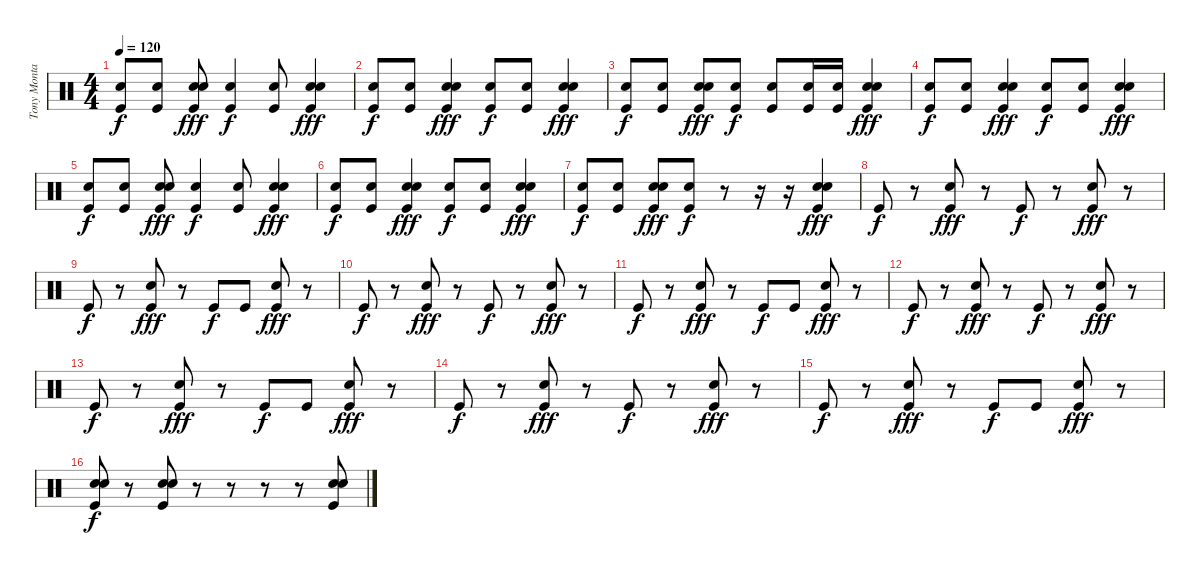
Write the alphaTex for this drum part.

\track ("Tony Montana" "Tony Monta") {instrument percussion}
\staff {score}
\articulation defaults
\ts (4 4)
\tempo 120
\clef neutral
\ks c
("Kick (hit)" "Snare (hit) 2").8{dy f} ("Kick (hit)" "Snare (hit) 2").8 ("Kick (hit)" "Snare (hit) 2" "Snare (hit) 2").8{dy fff} ("Kick (hit)" "Snare (hit) 2").4{dy f} ("Kick (hit)" "Snare (hit) 2").8 ("Kick (hit)" "Snare (hit) 2" "Snare (hit) 2").4{dy fff} |
("Kick (hit)" "Snare (hit) 2").8{dy f} ("Kick (hit)" "Snare (hit) 2").8 ("Kick (hit)" "Snare (hit) 2" "Snare (hit) 2").4{dy fff} ("Kick (hit)" "Snare (hit) 2").8{dy f} ("Kick (hit)" "Snare (hit) 2").8 ("Kick (hit)" "Snare (hit) 2" "Snare (hit) 2").4{dy fff} |
("Kick (hit)" "Snare (hit) 2").8{dy f} ("Kick (hit)" "Snare (hit) 2").8 ("Kick (hit)" "Snare (hit) 2" "Snare (hit) 2").8{dy fff} ("Kick (hit)" "Snare (hit) 2").8{dy f} ("Kick (hit)" "Snare (hit) 2").8 ("Kick (hit)" "Snare (hit) 2").16 ("Kick (hit)" "Snare (hit) 2").16 ("Kick (hit)" "Snare (hit) 2" "Snare (hit) 2").4{dy fff} |
("Kick (hit)" "Snare (hit) 2").8{dy f} ("Kick (hit)" "Snare (hit) 2").8 ("Kick (hit)" "Snare (hit) 2" "Snare (hit) 2").4{dy fff} ("Kick (hit)" "Snare (hit) 2").8{dy f} ("Kick (hit)" "Snare (hit) 2").8 ("Kick (hit)" "Snare (hit) 2" "Snare (hit) 2").4{dy fff} |
("Kick (hit)" "Snare (hit) 2").8{dy f} ("Kick (hit)" "Snare (hit) 2").8 ("Kick (hit)" "Snare (hit) 2" "Snare (hit) 2").8{dy fff} ("Kick (hit)" "Snare (hit) 2").4{dy f} ("Kick (hit)" "Snare (hit) 2").8 ("Kick (hit)" "Snare (hit) 2" "Snare (hit) 2").4{dy fff} |
("Kick (hit)" "Snare (hit) 2").8{dy f} ("Kick (hit)" "Snare (hit) 2").8 ("Kick (hit)" "Snare (hit) 2" "Snare (hit) 2").4{dy fff} ("Kick (hit)" "Snare (hit) 2").8{dy f} ("Kick (hit)" "Snare (hit) 2").8 ("Kick (hit)" "Snare (hit) 2" "Snare (hit) 2").4{dy fff} |
("Kick (hit)" "Snare (hit) 2").8{dy f} ("Kick (hit)" "Snare (hit) 2").8 ("Kick (hit)" "Snare (hit) 2" "Snare (hit) 2").8{dy fff} ("Kick (hit)" "Snare (hit) 2").8{dy f} r.8 r.16 r.16 ("Kick (hit)" "Snare (hit) 2" "Snare (hit) 2").4{dy fff} |
"Kick (hit)".8{dy f} r.8 ("Kick (hit)" "Snare (hit) 2").8{dy fff} r.8 "Kick (hit)".8{dy f} r.8 ("Kick (hit)" "Snare (hit) 2").8{dy fff} r.8 |
"Kick (hit)".8{dy f} r.8 ("Kick (hit)" "Snare (hit) 2").8{dy fff} r.8 "Kick (hit)".8{dy f} "Kick (hit)".8 ("Kick (hit)" "Snare (hit) 2").8{dy fff} r.8 |
"Kick (hit)".8{dy f} r.8 ("Kick (hit)" "Snare (hit) 2").8{dy fff} r.8 "Kick (hit)".8{dy f} r.8 ("Kick (hit)" "Snare (hit) 2").8{dy fff} r.8 |
"Kick (hit)".8{dy f} r.8 ("Kick (hit)" "Snare (hit) 2").8{dy fff} r.8 "Kick (hit)".8{dy f} "Kick (hit)".8 ("Kick (hit)" "Snare (hit) 2").8{dy fff} r.8 |
"Kick (hit)".8{dy f} r.8 ("Kick (hit)" "Snare (hit) 2").8{dy fff} r.8 "Kick (hit)".8{dy f} r.8 ("Kick (hit)" "Snare (hit) 2").8{dy fff} r.8 |
"Kick (hit)".8{dy f} r.8 ("Kick (hit)" "Snare (hit) 2").8{dy fff} r.8 "Kick (hit)".8{dy f} "Kick (hit)".8 ("Kick (hit)" "Snare (hit) 2").8{dy fff} r.8 |
"Kick (hit)".8{dy f} r.8 ("Kick (hit)" "Snare (hit) 2").8{dy fff} r.8 "Kick (hit)".8{dy f} r.8 ("Kick (hit)" "Snare (hit) 2").8{dy fff} r.8 |
"Kick (hit)".8{dy f} r.8 ("Kick (hit)" "Snare (hit) 2").8{dy fff} r.8 "Kick (hit)".8{dy f} "Kick (hit)".8 ("Kick (hit)" "Snare (hit) 2").8{dy fff} r.8 |
("Kick (hit)" "Snare (hit) 2" "Snare (hit) 2").8{dy f} r.8 ("Kick (hit)" "Snare (hit) 2" "Snare (hit) 2").8 r.8 r.8 r.8 r.8 ("Kick (hit)" "Snare (hit) 2" "Snare (hit) 2").8
